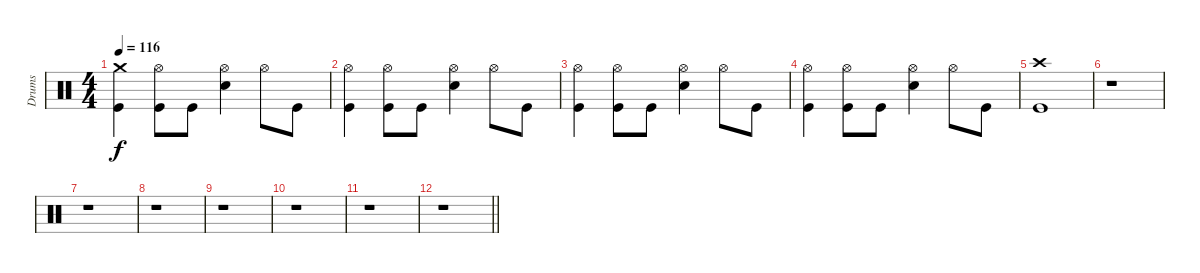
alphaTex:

\track ("Drums" "Drums") {instrument percussion}
\staff {score}
\articulation defaults
\ts (4 4)
\tempo 116
\clef neutral
\ks c
("Crash medium (hit)" "Kick (hit)").4{dy f} ("Hi-Hat (open)" "Kick (hit)").8 "Kick (hit)".8 ("Hi-Hat (open)" "Electric Snare (hit)").4 "Hi-Hat (open)".8 "Kick (hit)".8 |
("Hi-Hat (open)" "Kick (hit)").4 ("Hi-Hat (open)" "Kick (hit)").8 "Kick (hit)".8 ("Hi-Hat (open)" "Electric Snare (hit)").4 "Hi-Hat (open)".8 "Kick (hit)".8 |
("Hi-Hat (open)" "Kick (hit)").4 ("Hi-Hat (open)" "Kick (hit)").8 "Kick (hit)".8 ("Hi-Hat (open)" "Electric Snare (hit)").4 "Hi-Hat (open)".8 "Kick (hit)".8 |
("Hi-Hat (open)" "Kick (hit)").4 ("Hi-Hat (open)" "Kick (hit)").8 "Kick (hit)".8 ("Hi-Hat (open)" "Electric Snare (hit)").4 "Hi-Hat (open)".8 "Kick (hit)".8 |
("Crash high (hit)" "Kick (hit)").1 |
r.1 |
r.1 |
r.1 |
r.1 |
r.1 |
r.1 |
\barLineRight lightlight
r.1
